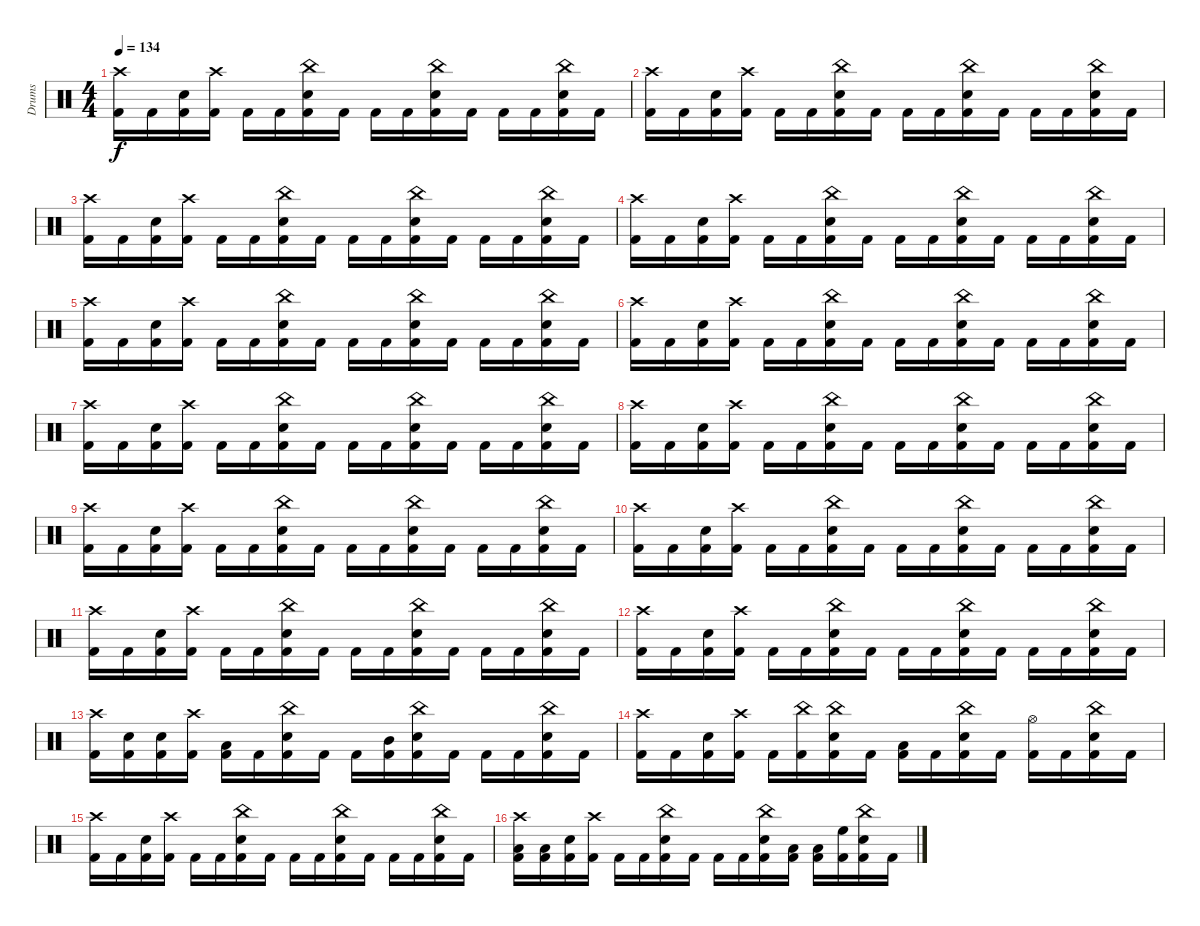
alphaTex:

\track ("Drums" "Drums") {instrument percussion}
\staff {score}
\articulation defaults
\ts (4 4)
\tempo 134
\clef neutral
\ks c
("Crash high (hit)" "Kick (hit) 2").16{dy f} "Kick (hit) 2".16 ("Electric Snare (hit)" "Kick (hit) 2").16 ("Crash high (hit)" "Kick (hit) 2").16 "Kick (hit) 2".16 "Kick (hit) 2".16 ("China (hit)" "Electric Snare (hit)" "Kick (hit) 2").16 "Kick (hit) 2".16 "Kick (hit) 2".16 "Kick (hit) 2".16 ("China (hit)" "Electric Snare (hit)" "Kick (hit) 2").16 "Kick (hit) 2".16 "Kick (hit) 2".16 "Kick (hit) 2".16 ("China (hit)" "Electric Snare (hit)" "Kick (hit) 2").16 "Kick (hit) 2".16 |
("Crash high (hit)" "Kick (hit) 2").16 "Kick (hit) 2".16 ("Electric Snare (hit)" "Kick (hit) 2").16 ("Crash high (hit)" "Kick (hit) 2").16 "Kick (hit) 2".16 "Kick (hit) 2".16 ("China (hit)" "Electric Snare (hit)" "Kick (hit) 2").16 "Kick (hit) 2".16 "Kick (hit) 2".16 "Kick (hit) 2".16 ("China (hit)" "Electric Snare (hit)" "Kick (hit) 2").16 "Kick (hit) 2".16 "Kick (hit) 2".16 "Kick (hit) 2".16 ("China (hit)" "Electric Snare (hit)" "Kick (hit) 2").16 "Kick (hit) 2".16 |
("Crash high (hit)" "Kick (hit) 2").16 "Kick (hit) 2".16 ("Electric Snare (hit)" "Kick (hit) 2").16 ("Crash high (hit)" "Kick (hit) 2").16 "Kick (hit) 2".16 "Kick (hit) 2".16 ("China (hit)" "Electric Snare (hit)" "Kick (hit) 2").16 "Kick (hit) 2".16 "Kick (hit) 2".16 "Kick (hit) 2".16 ("China (hit)" "Electric Snare (hit)" "Kick (hit) 2").16 "Kick (hit) 2".16 "Kick (hit) 2".16 "Kick (hit) 2".16 ("China (hit)" "Electric Snare (hit)" "Kick (hit) 2").16 "Kick (hit) 2".16 |
("Crash high (hit)" "Kick (hit) 2").16 "Kick (hit) 2".16 ("Electric Snare (hit)" "Kick (hit) 2").16 ("Crash high (hit)" "Kick (hit) 2").16 "Kick (hit) 2".16 "Kick (hit) 2".16 ("China (hit)" "Electric Snare (hit)" "Kick (hit) 2").16 "Kick (hit) 2".16 "Kick (hit) 2".16 "Kick (hit) 2".16 ("China (hit)" "Electric Snare (hit)" "Kick (hit) 2").16 "Kick (hit) 2".16 "Kick (hit) 2".16 "Kick (hit) 2".16 ("China (hit)" "Electric Snare (hit)" "Kick (hit) 2").16 "Kick (hit) 2".16 |
("Crash high (hit)" "Kick (hit) 2").16 "Kick (hit) 2".16 ("Electric Snare (hit)" "Kick (hit) 2").16 ("Crash high (hit)" "Kick (hit) 2").16 "Kick (hit) 2".16 "Kick (hit) 2".16 ("China (hit)" "Electric Snare (hit)" "Kick (hit) 2").16 "Kick (hit) 2".16 "Kick (hit) 2".16 "Kick (hit) 2".16 ("China (hit)" "Electric Snare (hit)" "Kick (hit) 2").16 "Kick (hit) 2".16 "Kick (hit) 2".16 "Kick (hit) 2".16 ("China (hit)" "Electric Snare (hit)" "Kick (hit) 2").16 "Kick (hit) 2".16 |
("Crash high (hit)" "Kick (hit) 2").16 "Kick (hit) 2".16 ("Electric Snare (hit)" "Kick (hit) 2").16 ("Crash high (hit)" "Kick (hit) 2").16 "Kick (hit) 2".16 "Kick (hit) 2".16 ("China (hit)" "Electric Snare (hit)" "Kick (hit) 2").16 "Kick (hit) 2".16 "Kick (hit) 2".16 "Kick (hit) 2".16 ("China (hit)" "Electric Snare (hit)" "Kick (hit) 2").16 "Kick (hit) 2".16 "Kick (hit) 2".16 "Kick (hit) 2".16 ("China (hit)" "Electric Snare (hit)" "Kick (hit) 2").16 "Kick (hit) 2".16 |
("Crash high (hit)" "Kick (hit) 2").16 "Kick (hit) 2".16 ("Electric Snare (hit)" "Kick (hit) 2").16 ("Crash high (hit)" "Kick (hit) 2").16 "Kick (hit) 2".16 "Kick (hit) 2".16 ("China (hit)" "Electric Snare (hit)" "Kick (hit) 2").16 "Kick (hit) 2".16 "Kick (hit) 2".16 "Kick (hit) 2".16 ("China (hit)" "Electric Snare (hit)" "Kick (hit) 2").16 "Kick (hit) 2".16 "Kick (hit) 2".16 "Kick (hit) 2".16 ("China (hit)" "Electric Snare (hit)" "Kick (hit) 2").16 "Kick (hit) 2".16 |
("Crash high (hit)" "Kick (hit) 2").16 "Kick (hit) 2".16 ("Electric Snare (hit)" "Kick (hit) 2").16 ("Crash high (hit)" "Kick (hit) 2").16 "Kick (hit) 2".16 "Kick (hit) 2".16 ("China (hit)" "Electric Snare (hit)" "Kick (hit) 2").16 "Kick (hit) 2".16 "Kick (hit) 2".16 "Kick (hit) 2".16 ("China (hit)" "Electric Snare (hit)" "Kick (hit) 2").16 "Kick (hit) 2".16 "Kick (hit) 2".16 "Kick (hit) 2".16 ("China (hit)" "Electric Snare (hit)" "Kick (hit) 2").16 "Kick (hit) 2".16 |
("Crash high (hit)" "Kick (hit) 2").16 "Kick (hit) 2".16 ("Electric Snare (hit)" "Kick (hit) 2").16 ("Crash high (hit)" "Kick (hit) 2").16 "Kick (hit) 2".16 "Kick (hit) 2".16 ("China (hit)" "Electric Snare (hit)" "Kick (hit) 2").16 "Kick (hit) 2".16 "Kick (hit) 2".16 "Kick (hit) 2".16 ("China (hit)" "Electric Snare (hit)" "Kick (hit) 2").16 "Kick (hit) 2".16 "Kick (hit) 2".16 "Kick (hit) 2".16 ("China (hit)" "Electric Snare (hit)" "Kick (hit) 2").16 "Kick (hit) 2".16 |
("Crash high (hit)" "Kick (hit) 2").16 "Kick (hit) 2".16 ("Electric Snare (hit)" "Kick (hit) 2").16 ("Crash high (hit)" "Kick (hit) 2").16 "Kick (hit) 2".16 "Kick (hit) 2".16 ("China (hit)" "Electric Snare (hit)" "Kick (hit) 2").16 "Kick (hit) 2".16 "Kick (hit) 2".16 "Kick (hit) 2".16 ("China (hit)" "Electric Snare (hit)" "Kick (hit) 2").16 "Kick (hit) 2".16 "Kick (hit) 2".16 "Kick (hit) 2".16 ("China (hit)" "Electric Snare (hit)" "Kick (hit) 2").16 "Kick (hit) 2".16 |
("Crash high (hit)" "Kick (hit) 2").16 "Kick (hit) 2".16 ("Electric Snare (hit)" "Kick (hit) 2").16 ("Crash high (hit)" "Kick (hit) 2").16 "Kick (hit) 2".16 "Kick (hit) 2".16 ("China (hit)" "Electric Snare (hit)" "Kick (hit) 2").16 "Kick (hit) 2".16 "Kick (hit) 2".16 "Kick (hit) 2".16 ("China (hit)" "Electric Snare (hit)" "Kick (hit) 2").16 "Kick (hit) 2".16 "Kick (hit) 2".16 "Kick (hit) 2".16 ("China (hit)" "Electric Snare (hit)" "Kick (hit) 2").16 "Kick (hit) 2".16 |
("Crash high (hit)" "Kick (hit) 2").16 "Kick (hit) 2".16 ("Electric Snare (hit)" "Kick (hit) 2").16 ("Crash high (hit)" "Kick (hit) 2").16 "Kick (hit) 2".16 "Kick (hit) 2".16 ("China (hit)" "Electric Snare (hit)" "Kick (hit) 2").16 "Kick (hit) 2".16 "Kick (hit) 2".16 "Kick (hit) 2".16 ("China (hit)" "Electric Snare (hit)" "Kick (hit) 2").16 "Kick (hit) 2".16 "Kick (hit) 2".16 "Kick (hit) 2".16 ("China (hit)" "Electric Snare (hit)" "Kick (hit) 2").16 "Kick (hit) 2".16 |
("Crash high (hit)" "Kick (hit) 2").16 ("Electric Snare (hit)" "Kick (hit) 2").16 ("Electric Snare (hit)" "Kick (hit) 2").16 ("Crash high (hit)" "Kick (hit) 2").16 ("Low Floor Tom (hit)" "Kick (hit) 2").16 "Kick (hit) 2".16 ("China (hit)" "Electric Snare (hit)" "Kick (hit) 2").16 "Kick (hit) 2".16 "Kick (hit) 2".16 ("Mid Tom (hit)" "Kick (hit) 2").16 ("China (hit)" "Electric Snare (hit)" "Kick (hit) 2").16 "Kick (hit) 2".16 "Kick (hit) 2".16 "Kick (hit) 2".16 ("China (hit)" "Electric Snare (hit)" "Kick (hit) 2").16 "Kick (hit) 2".16 |
("Crash high (hit)" "Kick (hit) 2").16 "Kick (hit) 2".16 ("Electric Snare (hit)" "Kick (hit) 2").16 ("Crash high (hit)" "Kick (hit) 2").16 "Kick (hit) 2".16 ("China (hit)" "Kick (hit) 2").16 ("China (hit)" "Electric Snare (hit)" "Kick (hit) 2").16 "Kick (hit) 2".16 ("Low Tom (hit)" "Kick (hit) 2").16 "Kick (hit) 2".16 ("China (hit)" "Electric Snare (hit)" "Kick (hit) 2").16 "Kick (hit) 2".16 ("Hi-Hat (open)" "Kick (hit) 2").16 "Kick (hit) 2".16 ("China (hit)" "Electric Snare (hit)" "Kick (hit) 2").16 "Kick (hit) 2".16 |
("Crash high (hit)" "Kick (hit) 2").16 "Kick (hit) 2".16 ("Electric Snare (hit)" "Kick (hit) 2").16 ("Crash high (hit)" "Kick (hit) 2").16 "Kick (hit) 2".16 "Kick (hit) 2".16 ("China (hit)" "Electric Snare (hit)" "Kick (hit) 2").16 "Kick (hit) 2".16 "Kick (hit) 2".16 "Kick (hit) 2".16 ("China (hit)" "Electric Snare (hit)" "Kick (hit) 2").16 "Kick (hit) 2".16 "Kick (hit) 2".16 "Kick (hit) 2".16 ("China (hit)" "Electric Snare (hit)" "Kick (hit) 2").16 "Kick (hit) 2".16 |
("Crash high (hit)" "Low Tom (hit)" "Kick (hit) 2").16 ("Low Floor Tom (hit)" "Kick (hit) 2").16 ("Electric Snare (hit)" "Kick (hit) 2").16 ("Crash high (hit)" "Kick (hit) 2").16 "Kick (hit) 2".16 "Kick (hit) 2".16 ("China (hit)" "Electric Snare (hit)" "Kick (hit) 2").16 "Kick (hit) 2".16 "Kick (hit) 2".16 "Kick (hit) 2".16 ("China (hit)" "Electric Snare (hit)" "Kick (hit) 2").16 ("Low Floor Tom (hit)" "Kick (hit) 2").16 ("Low Tom (hit)" "Kick (hit) 2").16 ("High Floor Tom (hit)" "Kick (hit) 2").16 ("China (hit)" "Electric Snare (hit)" "Kick (hit) 2").16 "Kick (hit) 2".16
